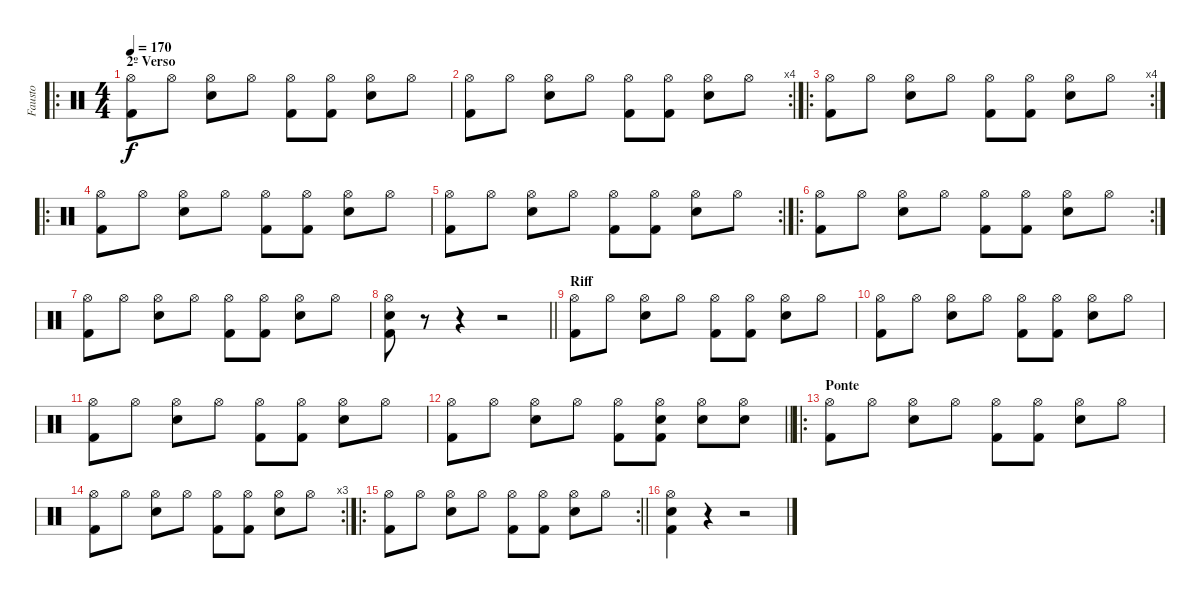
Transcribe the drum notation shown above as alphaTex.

\track ("Fausto" "Fausto") {instrument percussion}
\staff {score}
\articulation defaults
\ro
\ts (4 4)
\section ("" "2º Verso")
\tempo 170
\clef neutral
\ks c
("Hi-Hat (open)" "Kick (hit) 2").8{dy f} "Hi-Hat (open)".8 ("Hi-Hat (open)" "Snare (hit) 2").8 "Hi-Hat (open)".8 ("Hi-Hat (open)" "Kick (hit) 2").8 ("Hi-Hat (open)" "Kick (hit) 2").8 ("Hi-Hat (open)" "Snare (hit) 2").8 "Hi-Hat (open)".8 |
\rc 4
("Hi-Hat (open)" "Kick (hit) 2").8 "Hi-Hat (open)".8 ("Hi-Hat (open)" "Snare (hit) 2").8 "Hi-Hat (open)".8 ("Hi-Hat (open)" "Kick (hit) 2").8 ("Hi-Hat (open)" "Kick (hit) 2").8 ("Hi-Hat (open)" "Snare (hit) 2").8 "Hi-Hat (open)".8 |
\ro
\rc 4
("Hi-Hat (open)" "Kick (hit) 2").8 "Hi-Hat (open)".8 ("Hi-Hat (open)" "Snare (hit) 2").8 "Hi-Hat (open)".8 ("Hi-Hat (open)" "Kick (hit) 2").8 ("Hi-Hat (open)" "Kick (hit) 2").8 ("Hi-Hat (open)" "Snare (hit) 2").8 "Hi-Hat (open)".8 |
\ro
("Hi-Hat (open)" "Kick (hit) 2").8 "Hi-Hat (open)".8 ("Hi-Hat (open)" "Snare (hit) 2").8 "Hi-Hat (open)".8 ("Hi-Hat (open)" "Kick (hit) 2").8 ("Hi-Hat (open)" "Kick (hit) 2").8 ("Hi-Hat (open)" "Snare (hit) 2").8 "Hi-Hat (open)".8 |
\rc 2
("Hi-Hat (open)" "Kick (hit) 2").8 "Hi-Hat (open)".8 ("Hi-Hat (open)" "Snare (hit) 2").8 "Hi-Hat (open)".8 ("Hi-Hat (open)" "Kick (hit) 2").8 ("Hi-Hat (open)" "Kick (hit) 2").8 ("Hi-Hat (open)" "Snare (hit) 2").8 "Hi-Hat (open)".8 |
\ro
\rc 2
("Hi-Hat (open)" "Kick (hit) 2").8 "Hi-Hat (open)".8 ("Hi-Hat (open)" "Snare (hit) 2").8 "Hi-Hat (open)".8 ("Hi-Hat (open)" "Kick (hit) 2").8 ("Hi-Hat (open)" "Kick (hit) 2").8 ("Hi-Hat (open)" "Snare (hit) 2").8 "Hi-Hat (open)".8 |
("Hi-Hat (open)" "Kick (hit) 2").8 "Hi-Hat (open)".8 ("Hi-Hat (open)" "Snare (hit) 2").8 "Hi-Hat (open)".8 ("Hi-Hat (open)" "Kick (hit) 2").8 ("Hi-Hat (open)" "Kick (hit) 2").8 ("Hi-Hat (open)" "Snare (hit) 2").8 "Hi-Hat (open)".8 |
\barLineRight lightlight
("Hi-Hat (open)" "Snare (hit) 2" "Kick (hit) 2").8 r.8 r.4 r.2 |
\section ("" "Riff")
("Hi-Hat (open)" "Kick (hit) 2").8 "Hi-Hat (open)".8 ("Hi-Hat (open)" "Snare (hit) 2").8 "Hi-Hat (open)".8 ("Hi-Hat (open)" "Kick (hit) 2").8 ("Hi-Hat (open)" "Kick (hit) 2").8 ("Hi-Hat (open)" "Snare (hit) 2").8 "Hi-Hat (open)".8 |
("Hi-Hat (open)" "Kick (hit) 2").8 "Hi-Hat (open)".8 ("Hi-Hat (open)" "Snare (hit) 2").8 "Hi-Hat (open)".8 ("Hi-Hat (open)" "Kick (hit) 2").8 ("Hi-Hat (open)" "Kick (hit) 2").8 ("Hi-Hat (open)" "Snare (hit) 2").8 "Hi-Hat (open)".8 |
("Hi-Hat (open)" "Kick (hit) 2").8 "Hi-Hat (open)".8 ("Hi-Hat (open)" "Snare (hit) 2").8 "Hi-Hat (open)".8 ("Hi-Hat (open)" "Kick (hit) 2").8 ("Hi-Hat (open)" "Kick (hit) 2").8 ("Hi-Hat (open)" "Snare (hit) 2").8 "Hi-Hat (open)".8 |
\barLineRight lightlight
("Hi-Hat (open)" "Kick (hit) 2").8 "Hi-Hat (open)".8 ("Hi-Hat (open)" "Snare (hit) 2").8 "Hi-Hat (open)".8 ("Hi-Hat (open)" "Kick (hit) 2").8 ("Hi-Hat (open)" "Snare (hit) 2" "Kick (hit) 2").8 ("Hi-Hat (open)" "Snare (hit) 2").8 ("Hi-Hat (open)" "Snare (hit) 2").8 |
\ro
\section ("" "Ponte")
("Hi-Hat (open)" "Kick (hit) 2").8 "Hi-Hat (open)".8 ("Hi-Hat (open)" "Snare (hit) 2").8 "Hi-Hat (open)".8 ("Hi-Hat (open)" "Kick (hit) 2").8 ("Hi-Hat (open)" "Kick (hit) 2").8 ("Hi-Hat (open)" "Snare (hit) 2").8 "Hi-Hat (open)".8 |
\rc 3
("Hi-Hat (open)" "Kick (hit) 2").8 "Hi-Hat (open)".8 ("Hi-Hat (open)" "Snare (hit) 2").8 "Hi-Hat (open)".8 ("Hi-Hat (open)" "Kick (hit) 2").8 ("Hi-Hat (open)" "Kick (hit) 2").8 ("Hi-Hat (open)" "Snare (hit) 2").8 "Hi-Hat (open)".8 |
\ro
\rc 2
\barLineRight lightlight
("Hi-Hat (open)" "Kick (hit) 2").8 "Hi-Hat (open)".8 ("Hi-Hat (open)" "Snare (hit) 2").8 "Hi-Hat (open)".8 ("Hi-Hat (open)" "Kick (hit) 2").8 ("Hi-Hat (open)" "Kick (hit) 2").8 ("Hi-Hat (open)" "Snare (hit) 2").8 "Hi-Hat (open)".8 |
("Hi-Hat (open)" "Snare (hit) 2" "Kick (hit) 2").4 r.4 r.2
